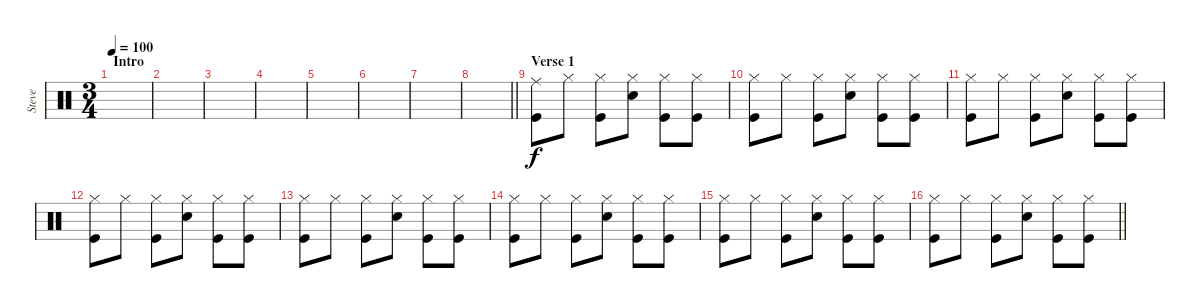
\track ("Steve" "Steve") {instrument percussion}
\staff {score}
\articulation defaults
\ts (3 4)
\section ("" "Intro")
\tempo 100
\clef neutral
\ks c
|
|
|
|
|
|
|
\barLineRight lightlight
|
\section ("" "Verse 1")
("Kick (hit)" "Ride (middle)").8 "Hi-Hat (closed)".8 ("Kick (hit)" "Hi-Hat (closed)").8 ("Snare (hit) 2" "Hi-Hat (closed)").8 ("Kick (hit)" "Hi-Hat (closed)").8 ("Kick (hit)" "Hi-Hat (closed)").8 |
("Kick (hit)" "Hi-Hat (closed)").8 "Hi-Hat (closed)".8 ("Kick (hit)" "Hi-Hat (closed)").8 ("Snare (hit) 2" "Hi-Hat (closed)").8 ("Kick (hit)" "Hi-Hat (closed)").8 ("Kick (hit)" "Hi-Hat (closed)").8 |
("Kick (hit)" "Hi-Hat (closed)").8 "Hi-Hat (closed)".8 ("Kick (hit)" "Hi-Hat (closed)").8 ("Snare (hit) 2" "Hi-Hat (closed)").8 ("Kick (hit)" "Hi-Hat (closed)").8 ("Kick (hit)" "Hi-Hat (closed)").8 |
("Kick (hit)" "Hi-Hat (closed)").8 "Hi-Hat (closed)".8 ("Kick (hit)" "Hi-Hat (closed)").8 ("Snare (hit) 2" "Hi-Hat (closed)").8 ("Kick (hit)" "Hi-Hat (closed)").8 ("Kick (hit)" "Hi-Hat (closed)").8 |
("Kick (hit)" "Hi-Hat (closed)").8 "Hi-Hat (closed)".8 ("Kick (hit)" "Hi-Hat (closed)").8 ("Snare (hit) 2" "Hi-Hat (closed)").8 ("Kick (hit)" "Hi-Hat (closed)").8 ("Kick (hit)" "Hi-Hat (closed)").8 |
("Kick (hit)" "Hi-Hat (closed)").8 "Hi-Hat (closed)".8 ("Kick (hit)" "Hi-Hat (closed)").8 ("Snare (hit) 2" "Hi-Hat (closed)").8 ("Kick (hit)" "Hi-Hat (closed)").8 ("Kick (hit)" "Hi-Hat (closed)").8 |
("Kick (hit)" "Hi-Hat (closed)").8 "Hi-Hat (closed)".8 ("Kick (hit)" "Hi-Hat (closed)").8 ("Snare (hit) 2" "Hi-Hat (closed)").8 ("Kick (hit)" "Hi-Hat (closed)").8 ("Kick (hit)" "Hi-Hat (closed)").8 |
\barLineRight lightlight
("Kick (hit)" "Hi-Hat (closed)").8 "Hi-Hat (closed)".8 ("Kick (hit)" "Hi-Hat (closed)").8 ("Snare (hit) 2" "Hi-Hat (closed)").8 ("Kick (hit)" "Hi-Hat (closed)").8 ("Kick (hit)" "Hi-Hat (closed)").8
